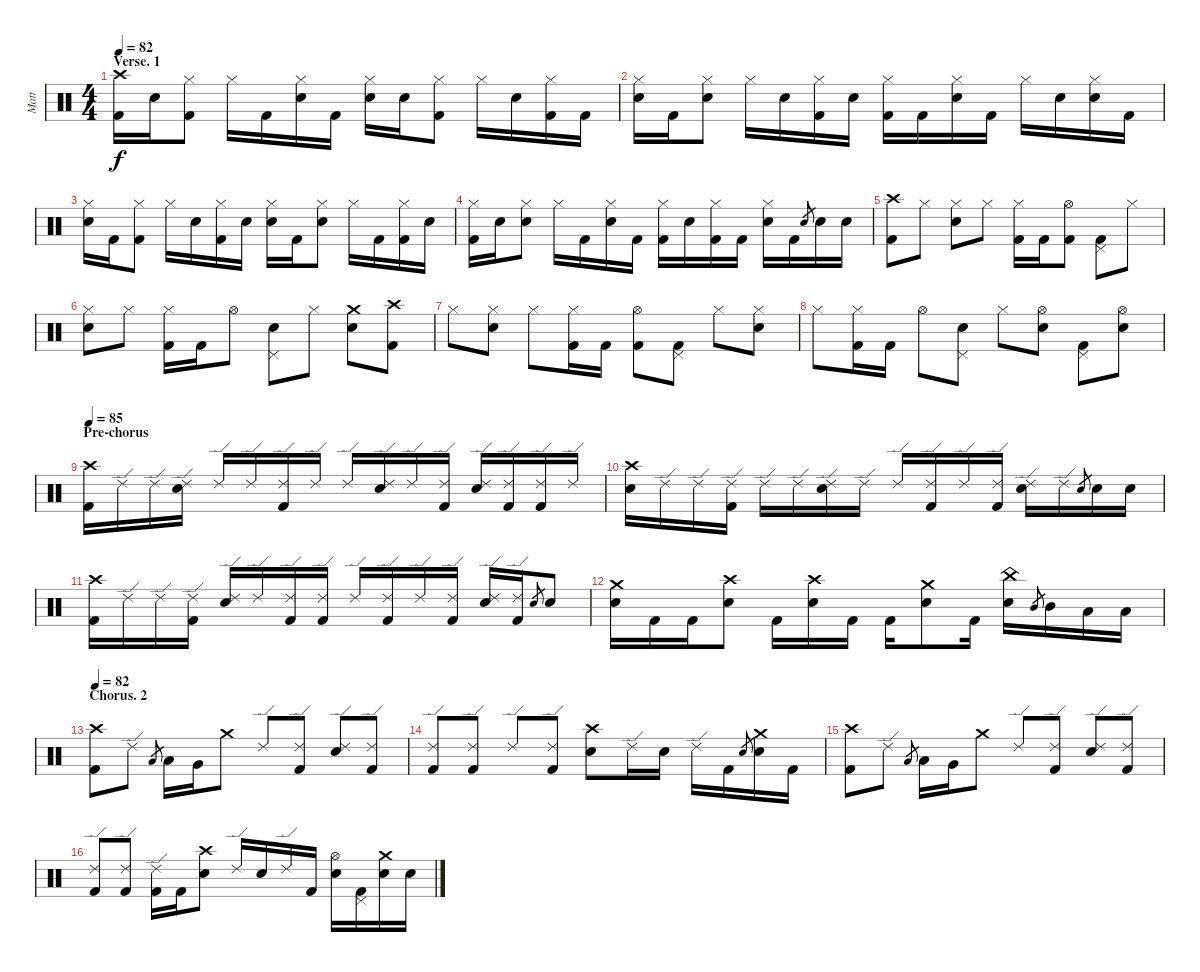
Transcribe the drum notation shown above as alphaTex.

\track ("Matt" "Matt") {instrument percussion}
\staff {score}
\articulation defaults
\ts (4 4)
\section ("" "Verse. 1")
\tempo 82
\clef neutral
\ks c
("Crash high (hit)" "Kick (hit) 2").16{dy f} "Electric Snare (hit)".16 ("Hi-Hat (closed)" "Kick (hit) 2").8 "Hi-Hat (closed)".16 "Kick (hit) 2".16 ("Hi-Hat (closed)" "Electric Snare (hit)").16 "Kick (hit) 2".16 ("Hi-Hat (closed)" "Electric Snare (hit)").16 "Electric Snare (hit)".16 ("Hi-Hat (closed)" "Kick (hit) 2").8 "Hi-Hat (closed)".16 "Electric Snare (hit)".16 ("Hi-Hat (closed)" "Kick (hit) 2").16 "Kick (hit) 2".16 |
("Hi-Hat (closed)" "Electric Snare (hit)").16 "Kick (hit) 2".16 ("Hi-Hat (closed)" "Electric Snare (hit)").8 "Hi-Hat (closed)".16 "Electric Snare (hit)".16 ("Hi-Hat (closed)" "Kick (hit) 2").16 "Electric Snare (hit)".16 ("Hi-Hat (closed)" "Kick (hit) 2").16 "Kick (hit) 2".16 ("Hi-Hat (closed)" "Electric Snare (hit)").16 "Kick (hit) 2".16 "Hi-Hat (closed)".16 "Electric Snare (hit)".16 ("Hi-Hat (closed)" "Electric Snare (hit)").16 "Kick (hit) 2".16 |
("Hi-Hat (closed)" "Electric Snare (hit)").16 "Kick (hit) 2".16 ("Hi-Hat (closed)" "Kick (hit) 2").8 "Hi-Hat (closed)".16 "Electric Snare (hit)".16 ("Hi-Hat (closed)" "Kick (hit) 2").16 "Electric Snare (hit)".16 ("Hi-Hat (closed)" "Electric Snare (hit)").16 "Kick (hit) 2".16 ("Hi-Hat (closed)" "Electric Snare (hit)").8 "Hi-Hat (closed)".16 "Kick (hit) 2".16 ("Hi-Hat (closed)" "Kick (hit) 2").16 "Electric Snare (hit)".16 |
("Hi-Hat (closed)" "Kick (hit) 2").16 "Electric Snare (hit)".16 ("Hi-Hat (closed)" "Electric Snare (hit)").8 "Hi-Hat (closed)".16 "Kick (hit) 2".16 ("Hi-Hat (closed)" "Electric Snare (hit)").16 "Kick (hit) 2".16 ("Hi-Hat (closed)" "Kick (hit) 2").16 "Electric Snare (hit)".16 ("Hi-Hat (closed)" "Kick (hit) 2").16 "Kick (hit) 2".16 ("Hi-Hat (closed)" "Electric Snare (hit)").16 "Kick (hit) 2".16 "Electric Snare (hit)".8{gr} "Electric Snare (hit)".16 "Electric Snare (hit)".16 |
("Crash high (hit)" "Kick (hit) 2").8 "Hi-Hat (closed)".8 ("Hi-Hat (closed)" "Electric Snare (hit)").8 "Hi-Hat (closed)".8 ("Hi-Hat (closed)" "Kick (hit) 2").16 "Kick (hit) 2".16 ("Hi-Hat (open)" "Kick (hit) 2").8 ("Pedal Hi-Hat (hit)" "Kick (hit) 2").8 "Hi-Hat (closed)".8 |
("Hi-Hat (closed)" "Electric Snare (hit)").8 "Hi-Hat (closed)".8 ("Hi-Hat (closed)" "Kick (hit) 2").16 "Kick (hit) 2".16 "Hi-Hat (open)".8 ("Pedal Hi-Hat (hit)" "Electric Snare (hit)").8 "Hi-Hat (closed)".8 ("Crash medium (hit)" "Electric Snare (hit)").8 ("Crash high (hit)" "Kick (hit) 2").8 |
"Hi-Hat (closed)".8 ("Hi-Hat (closed)" "Electric Snare (hit)").8 "Hi-Hat (closed)".8 ("Hi-Hat (closed)" "Kick (hit) 2").16 "Kick (hit) 2".16 ("Hi-Hat (open)" "Kick (hit) 2").8 ("Pedal Hi-Hat (hit)" "Kick (hit) 2").8 "Hi-Hat (closed)".8 ("Hi-Hat (closed)" "Electric Snare (hit)").8 |
"Hi-Hat (closed)".8 ("Hi-Hat (closed)" "Kick (hit) 2").16 "Kick (hit) 2".16 "Hi-Hat (open)".8 ("Pedal Hi-Hat (hit)" "Electric Snare (hit)").8 "Hi-Hat (closed)".8 ("Hi-Hat (open)" "Electric Snare (hit)").8 ("Pedal Hi-Hat (hit)" "Kick (hit) 2").8 ("Hi-Hat (open)" "Electric Snare (hit)").8 |
\section ("" "Pre-chorus")
\tempo 85
("Crash high (hit)" "Kick (hit) 2").16 "Ride (edge) 2".16 "Ride (edge) 2".16 ("Ride (edge) 2" "Electric Snare (hit)").16 "Ride (edge) 2".16 "Ride (edge) 2".16 ("Ride (edge) 2" "Kick (hit) 2").16 "Ride (edge) 2".16 "Ride (edge) 2".16 ("Ride (edge) 2" "Electric Snare (hit)").16 "Ride (edge) 2".16 ("Ride (edge) 2" "Kick (hit) 2").16 ("Ride (edge) 2" "Electric Snare (hit)").16 ("Ride (edge) 2" "Kick (hit) 2").16 ("Ride (edge) 2" "Kick (hit) 2").16 "Ride (edge) 2".16 |
("Crash high (hit)" "Electric Snare (hit)").16 "Ride (edge) 2".16 "Ride (edge) 2".16 ("Ride (edge) 2" "Kick (hit) 2").16 "Ride (edge) 2".16 "Ride (edge) 2".16 ("Ride (edge) 2" "Electric Snare (hit)").16 "Ride (edge) 2".16 "Ride (edge) 2".16 ("Ride (edge) 2" "Kick (hit) 2").16 "Ride (edge) 2".16 ("Ride (edge) 2" "Kick (hit) 2").16 ("Ride (edge) 2" "Electric Snare (hit)").16 "Ride (edge) 2".16 "Electric Snare (hit)".8{gr} "Electric Snare (hit)".16 "Electric Snare (hit)".16 |
("Crash high (hit)" "Kick (hit) 2").16 "Ride (edge) 2".16 "Ride (edge) 2".16 ("Ride (edge) 2" "Kick (hit) 2").16 ("Ride (edge) 2" "Electric Snare (hit)").16 "Ride (edge) 2".16 ("Ride (edge) 2" "Kick (hit) 2").16 ("Ride (edge) 2" "Kick (hit) 2").16 "Ride (edge) 2".16 ("Ride (edge) 2" "Kick (hit) 2").16 "Ride (edge) 2".16 ("Ride (edge) 2" "Kick (hit) 2").16 ("Ride (edge) 2" "Electric Snare (hit)").16 ("Ride (edge) 2" "Kick (hit) 2").16 "Electric Snare (hit)".8{gr} "Electric Snare (hit)".8 |
("Crash medium (hit)" "Electric Snare (hit)").16 "Kick (hit) 2".16 "Kick (hit) 2".16 ("Crash high (hit)" "Electric Snare (hit)").8 "Kick (hit) 2".16 ("Crash high (hit)" "Electric Snare (hit)").16 "Kick (hit) 2".16 "Kick (hit) 2".16 ("Crash medium (hit)" "Electric Snare (hit)").8 "Kick (hit) 2".16 ("China (hit)" "Electric Snare (hit)").16 "Mid Tom (hit)".8{gr} "Mid Tom (hit)".16 "Low Tom (hit)".16 "Low Floor Tom (hit)".16 |
\section ("" "Chorus. 2")
\tempo 82
("Crash high (hit)" "Kick (hit) 2").8 "Ride (edge) 2".8 "Low Tom (hit)".8{gr} "Low Tom (hit)".16 "Very Low Tom (hit)".16 "Crash medium (hit)".8 "Ride (edge) 2".8 ("Ride (edge) 2" "Kick (hit) 2").8 ("Ride (edge) 2" "Electric Snare (hit)").8 ("Ride (edge) 2" "Kick (hit) 2").8 |
("Ride (edge) 2" "Kick (hit) 2").8 ("Ride (edge) 2" "Kick (hit) 2").8 "Ride (edge) 2".8 ("Ride (edge) 2" "Kick (hit) 2").8 ("Crash high (hit)" "Electric Snare (hit)").8 "Ride (edge) 2".16 "Electric Snare (hit)".16 "Ride (edge) 2".16 "Kick (hit) 2".16 "Electric Snare (hit)".8{gr} ("Crash medium (hit)" "Electric Snare (hit)").16 "Kick (hit) 2".16 |
("Crash high (hit)" "Kick (hit) 2").8 "Ride (edge) 2".8 "Low Tom (hit)".8{gr} "Low Tom (hit)".16 "Very Low Tom (hit)".16 "Crash medium (hit)".8 "Ride (edge) 2".8 ("Ride (edge) 2" "Kick (hit) 2").8 ("Ride (edge) 2" "Electric Snare (hit)").8 ("Ride (edge) 2" "Kick (hit) 2").8 |
("Ride (edge) 2" "Kick (hit) 2").8 ("Ride (edge) 2" "Kick (hit) 2").8 ("Ride (edge) 2" "Kick (hit) 2").16 "Kick (hit) 2".16 ("Crash high (hit)" "Electric Snare (hit)").8 "Ride (edge) 2".16 "Electric Snare (hit)".16 "Ride (edge) 2".16 "Kick (hit) 2".16 ("Hi-Hat (open)" "Electric Snare (hit)").16 ("Pedal Hi-Hat (hit)" "Kick (hit) 2").16 ("Crash medium (hit)" "Electric Snare (hit)").16 "Electric Snare (hit)".16
